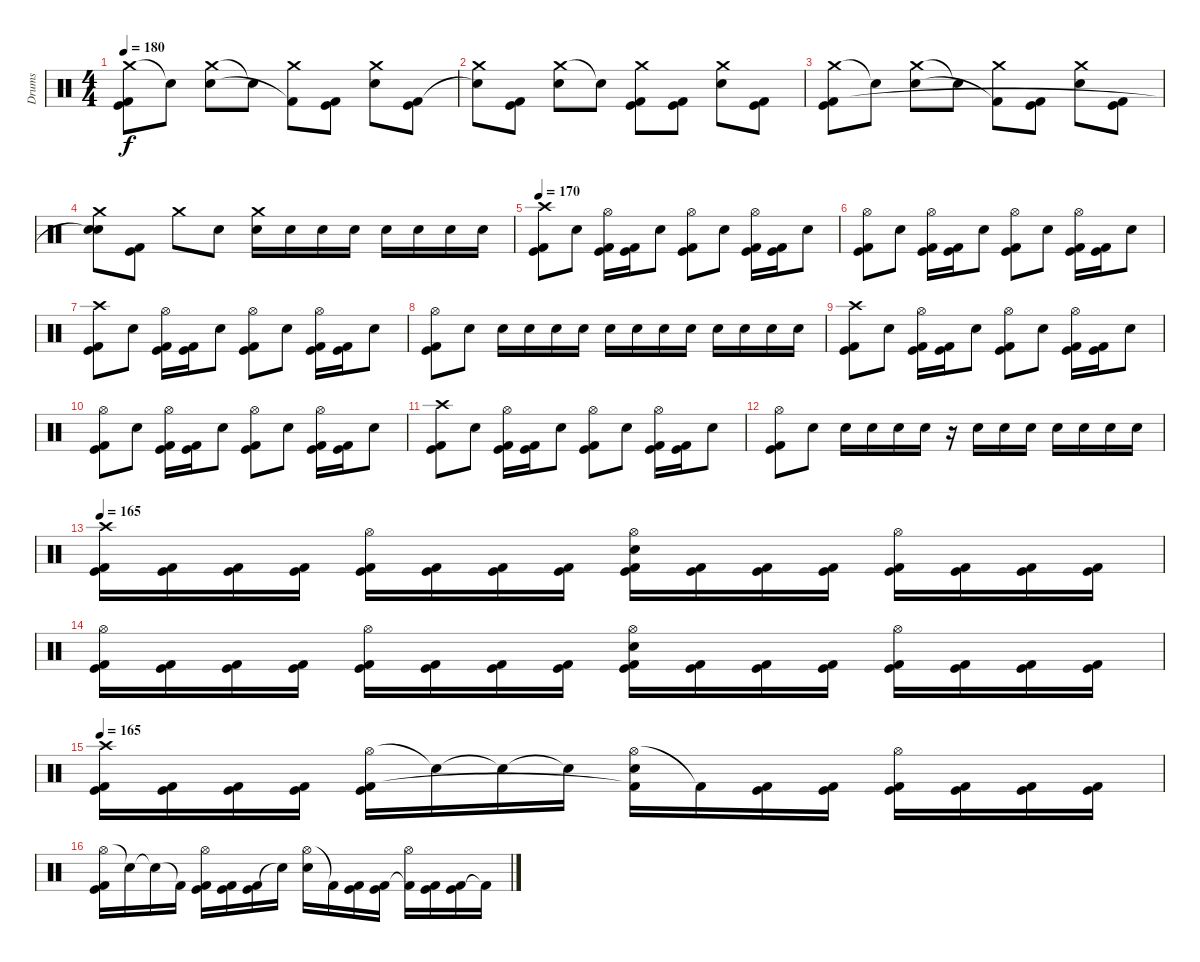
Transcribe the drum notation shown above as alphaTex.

\track ("Drums" "Drums") {instrument percussion}
\staff {score}
\articulation defaults
\ts (4 4)
\tempo 180
\clef neutral
\ks c
("Crash medium (hit)" "Kick (hit)" "Kick (hit) 2").8{dy f} "Snare (hit)"{t}.8 ("Crash medium (hit)" "Electric Snare (hit)").8 "Snare (hit)"{t}.8 ("Crash medium (hit)" "Kick (hit) 2"{t}).8 ("Kick (hit)" "Kick (hit) 2").8 ("Crash medium (hit)" "Electric Snare (hit)").8 ("Kick (hit)" "Kick (hit) 2").8 |
("Crash medium (hit)" "Snare (hit)"{t}).8 ("Kick (hit)" "Kick (hit) 2").8 ("Crash medium (hit)" "Electric Snare (hit)").8 "Snare (hit)"{t}.8 ("Crash medium (hit)" "Kick (hit)" "Kick (hit) 2").8 ("Kick (hit)" "Kick (hit) 2").8 ("Crash medium (hit)" "Electric Snare (hit)").8 ("Kick (hit)" "Kick (hit) 2").8 |
("Crash medium (hit)" "Kick (hit)" "Kick (hit) 2").8 "Snare (hit)"{t}.8 ("Crash medium (hit)" "Electric Snare (hit)").8 "Snare (hit)"{t}.8 ("Crash medium (hit)" "Kick (hit) 2"{t}).8 ("Kick (hit)" "Kick (hit) 2").8 ("Crash medium (hit)" "Electric Snare (hit)").8 ("Kick (hit)" "Kick (hit) 2").8 |
("Crash medium (hit)" "Electric Snare (hit)" "Snare (hit)"{t}).8 ("Kick (hit)" "Kick (hit) 2").8 "Crash medium (hit)".8 "Electric Snare (hit)".8 ("Crash medium (hit)" "Electric Snare (hit)").16 "Electric Snare (hit)".16 "Electric Snare (hit)".16 "Electric Snare (hit)".16 "Electric Snare (hit)".16 "Electric Snare (hit)".16 "Electric Snare (hit)".16 "Electric Snare (hit)".16 |
\tempo 170
("Crash high (hit)" "Kick (hit)" "Kick (hit) 2").8 "Electric Snare (hit)".8 ("Hi-Hat (open)" "Kick (hit)" "Kick (hit) 2").16 ("Kick (hit)" "Kick (hit) 2").16 "Electric Snare (hit)".8 ("Hi-Hat (open)" "Kick (hit)" "Kick (hit) 2").8 "Electric Snare (hit)".8 ("Hi-Hat (open)" "Kick (hit)" "Kick (hit) 2").16 ("Kick (hit)" "Kick (hit) 2").16 "Electric Snare (hit)".8 |
("Hi-Hat (open)" "Kick (hit)" "Kick (hit) 2").8 "Electric Snare (hit)".8 ("Hi-Hat (open)" "Kick (hit)" "Kick (hit) 2").16 ("Kick (hit)" "Kick (hit) 2").16 "Electric Snare (hit)".8 ("Hi-Hat (open)" "Kick (hit)" "Kick (hit) 2").8 "Electric Snare (hit)".8 ("Hi-Hat (open)" "Kick (hit)" "Kick (hit) 2").16 ("Kick (hit)" "Kick (hit) 2").16 "Electric Snare (hit)".8 |
("Crash high (hit)" "Kick (hit)" "Kick (hit) 2").8 "Electric Snare (hit)".8 ("Hi-Hat (open)" "Kick (hit)" "Kick (hit) 2").16 ("Kick (hit)" "Kick (hit) 2").16 "Electric Snare (hit)".8 ("Hi-Hat (open)" "Kick (hit)" "Kick (hit) 2").8 "Electric Snare (hit)".8 ("Hi-Hat (open)" "Kick (hit)" "Kick (hit) 2").16 ("Kick (hit)" "Kick (hit) 2").16 "Electric Snare (hit)".8 |
("Hi-Hat (open)" "Kick (hit)" "Kick (hit) 2").8 "Electric Snare (hit)".8 "Electric Snare (hit)".16 "Electric Snare (hit)".16 "Electric Snare (hit)".16 "Electric Snare (hit)".16 "Electric Snare (hit)".16 "Electric Snare (hit)".16 "Electric Snare (hit)".16 "Electric Snare (hit)".16 "Electric Snare (hit)".16 "Electric Snare (hit)".16 "Electric Snare (hit)".16 "Electric Snare (hit)".16 |
("Crash high (hit)" "Kick (hit)" "Kick (hit) 2").8 "Electric Snare (hit)".8 ("Hi-Hat (open)" "Kick (hit)" "Kick (hit) 2").16 ("Kick (hit)" "Kick (hit) 2").16 "Electric Snare (hit)".8 ("Hi-Hat (open)" "Kick (hit)" "Kick (hit) 2").8 "Electric Snare (hit)".8 ("Hi-Hat (open)" "Kick (hit)" "Kick (hit) 2").16 ("Kick (hit)" "Kick (hit) 2").16 "Electric Snare (hit)".8 |
("Hi-Hat (open)" "Kick (hit)" "Kick (hit) 2").8 "Electric Snare (hit)".8 ("Hi-Hat (open)" "Kick (hit)" "Kick (hit) 2").16 ("Kick (hit)" "Kick (hit) 2").16 "Electric Snare (hit)".8 ("Hi-Hat (open)" "Kick (hit)" "Kick (hit) 2").8 "Electric Snare (hit)".8 ("Hi-Hat (open)" "Kick (hit)" "Kick (hit) 2").16 ("Kick (hit)" "Kick (hit) 2").16 "Electric Snare (hit)".8 |
("Crash high (hit)" "Kick (hit)" "Kick (hit) 2").8 "Electric Snare (hit)".8 ("Hi-Hat (open)" "Kick (hit)" "Kick (hit) 2").16 ("Kick (hit)" "Kick (hit) 2").16 "Electric Snare (hit)".8 ("Hi-Hat (open)" "Kick (hit)" "Kick (hit) 2").8 "Electric Snare (hit)".8 ("Hi-Hat (open)" "Kick (hit)" "Kick (hit) 2").16 ("Kick (hit)" "Kick (hit) 2").16 "Electric Snare (hit)".8 |
("Hi-Hat (open)" "Kick (hit)" "Kick (hit) 2").8 "Electric Snare (hit)".8 "Electric Snare (hit)".16 "Electric Snare (hit)".16 "Electric Snare (hit)".16 "Electric Snare (hit)".16 r.16 "Electric Snare (hit)".16 "Electric Snare (hit)".16 "Electric Snare (hit)".16 "Electric Snare (hit)".16 "Electric Snare (hit)".16 "Electric Snare (hit)".16 "Electric Snare (hit)".16 |
\tempo 165
("Crash high (hit)" "Kick (hit)" "Kick (hit) 2").16 ("Kick (hit)" "Kick (hit) 2").16 ("Kick (hit)" "Kick (hit) 2").16 ("Kick (hit)" "Kick (hit) 2").16 ("Hi-Hat (open)" "Kick (hit)" "Kick (hit) 2").16 ("Kick (hit)" "Kick (hit) 2").16 ("Kick (hit)" "Kick (hit) 2").16 ("Kick (hit)" "Kick (hit) 2").16 ("Kick (hit)" "Hi-Hat (open)" "Electric Snare (hit)" "Kick (hit) 2").16 ("Kick (hit)" "Kick (hit) 2").16 ("Kick (hit)" "Kick (hit) 2").16 ("Kick (hit)" "Kick (hit) 2").16 ("Hi-Hat (open)" "Kick (hit)" "Kick (hit) 2").16 ("Kick (hit)" "Kick (hit) 2").16 ("Kick (hit)" "Kick (hit) 2").16 ("Kick (hit)" "Kick (hit) 2").16 |
("Hi-Hat (open)" "Kick (hit)" "Kick (hit) 2").16 ("Kick (hit)" "Kick (hit) 2").16 ("Kick (hit)" "Kick (hit) 2").16 ("Kick (hit)" "Kick (hit) 2").16 ("Hi-Hat (open)" "Kick (hit)" "Kick (hit) 2").16 ("Kick (hit)" "Kick (hit) 2").16 ("Kick (hit)" "Kick (hit) 2").16 ("Kick (hit)" "Kick (hit) 2").16 ("Kick (hit)" "Hi-Hat (open)" "Electric Snare (hit)" "Kick (hit) 2").16 ("Kick (hit)" "Kick (hit) 2").16 ("Kick (hit)" "Kick (hit) 2").16 ("Kick (hit)" "Kick (hit) 2").16 ("Hi-Hat (open)" "Kick (hit)" "Kick (hit) 2").16 ("Kick (hit)" "Kick (hit) 2").16 ("Kick (hit)" "Kick (hit) 2").16 ("Kick (hit)" "Kick (hit) 2").16 |
\tempo 165
("Crash high (hit)" "Kick (hit)" "Kick (hit) 2").16 ("Kick (hit)" "Kick (hit) 2").16 ("Kick (hit)" "Kick (hit) 2").16 ("Kick (hit)" "Kick (hit) 2").16 ("Hi-Hat (open)" "Kick (hit)" "Kick (hit) 2").16 "Snare (hit)"{t}.16 "Snare (hit)"{t}.16 "Snare (hit)"{t}.16 ("Hi-Hat (open)" "Electric Snare (hit)" "Kick (hit) 2"{t}).16 "Kick (hit) 2"{t}.16 ("Kick (hit)" "Kick (hit) 2").16 ("Kick (hit)" "Kick (hit) 2").16 ("Hi-Hat (open)" "Kick (hit)" "Kick (hit) 2").16 ("Kick (hit)" "Kick (hit) 2").16 ("Kick (hit)" "Kick (hit) 2").16 ("Kick (hit)" "Kick (hit) 2").16 |
("Hi-Hat (open)" "Kick (hit)" "Kick (hit) 2").16 "Snare (hit)"{t}.16 "Snare (hit)"{t}.16 "Kick (hit) 2"{t}.16 ("Hi-Hat (open)" "Kick (hit)" "Kick (hit) 2").16 ("Kick (hit)" "Kick (hit) 2").16 ("Kick (hit)" "Kick (hit) 2").16 "Snare (hit)"{t}.16 ("Hi-Hat (open)" "Electric Snare (hit)").16 "Kick (hit) 2"{t}.16 ("Kick (hit)" "Kick (hit) 2").16 ("Kick (hit)" "Kick (hit) 2").16 ("Hi-Hat (open)" "Kick (hit) 2"{t}).16 ("Kick (hit)" "Kick (hit) 2").16 ("Kick (hit)" "Kick (hit) 2").16 "Kick (hit) 2"{t}.16
